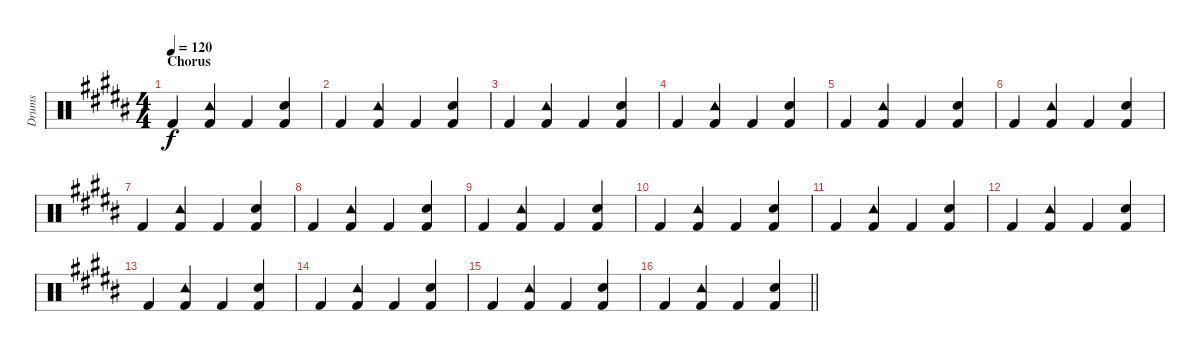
\track ("Drums" "Drums") {instrument percussion}
\staff {score}
\articulation defaults
\ts (4 4)
\section ("" "Chorus")
\tempo 120
\clef neutral
\ks b "Kick (hit) 2".4{dy f}
("Tambourine (hit)" "Kick (hit) 2").4 "Kick (hit) 2".4 ("Kick (hit) 2" "Snare (hit) 2").4 |
"Kick (hit) 2".4 ("Tambourine (hit)" "Kick (hit) 2").4 "Kick (hit) 2".4 ("Kick (hit) 2" "Snare (hit) 2").4 |
"Kick (hit) 2".4 ("Tambourine (hit)" "Kick (hit) 2").4 "Kick (hit) 2".4 ("Kick (hit) 2" "Snare (hit) 2").4 |
"Kick (hit) 2".4 ("Tambourine (hit)" "Kick (hit) 2").4 "Kick (hit) 2".4 ("Kick (hit) 2" "Snare (hit) 2").4 |
"Kick (hit) 2".4 ("Tambourine (hit)" "Kick (hit) 2").4 "Kick (hit) 2".4 ("Kick (hit) 2" "Snare (hit) 2").4 |
"Kick (hit) 2".4 ("Tambourine (hit)" "Kick (hit) 2").4 "Kick (hit) 2".4 ("Kick (hit) 2" "Snare (hit) 2").4 |
"Kick (hit) 2".4 ("Tambourine (hit)" "Kick (hit) 2").4 "Kick (hit) 2".4 ("Kick (hit) 2" "Snare (hit) 2").4 |
"Kick (hit) 2".4 ("Tambourine (hit)" "Kick (hit) 2").4 "Kick (hit) 2".4 ("Kick (hit) 2" "Snare (hit) 2").4 |
"Kick (hit) 2".4 ("Tambourine (hit)" "Kick (hit) 2").4 "Kick (hit) 2".4 ("Kick (hit) 2" "Snare (hit) 2").4 |
"Kick (hit) 2".4 ("Tambourine (hit)" "Kick (hit) 2").4 "Kick (hit) 2".4 ("Kick (hit) 2" "Snare (hit) 2").4 |
"Kick (hit) 2".4 ("Tambourine (hit)" "Kick (hit) 2").4 "Kick (hit) 2".4 ("Kick (hit) 2" "Snare (hit) 2").4 |
"Kick (hit) 2".4 ("Tambourine (hit)" "Kick (hit) 2").4 "Kick (hit) 2".4 ("Kick (hit) 2" "Snare (hit) 2").4 |
"Kick (hit) 2".4 ("Tambourine (hit)" "Kick (hit) 2").4 "Kick (hit) 2".4 ("Kick (hit) 2" "Snare (hit) 2").4 |
"Kick (hit) 2".4 ("Tambourine (hit)" "Kick (hit) 2").4 "Kick (hit) 2".4 ("Kick (hit) 2" "Snare (hit) 2").4 |
"Kick (hit) 2".4 ("Tambourine (hit)" "Kick (hit) 2").4 "Kick (hit) 2".4 ("Kick (hit) 2" "Snare (hit) 2").4 |
\barLineRight lightlight "Kick (hit) 2".4
("Tambourine (hit)" "Kick (hit) 2").4 "Kick (hit) 2".4 ("Kick (hit) 2" "Snare (hit) 2").4
